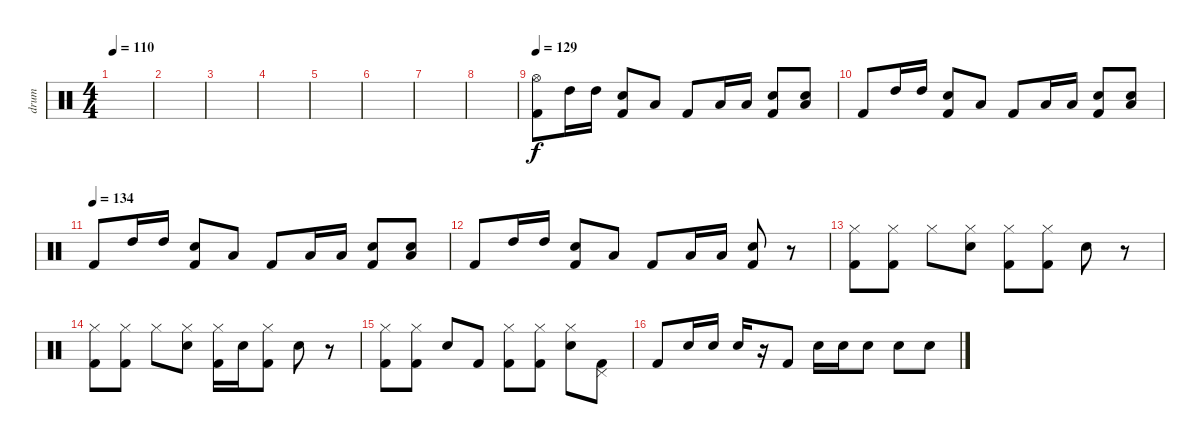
\track ("drum" "drum") {instrument percussion}
\staff {score}
\articulation defaults
\ts (4 4)
\tempo 110
\clef neutral
\ks c
|
|
|
|
|
|
|
|
\tempo 129
("Hi-Hat (open)" "Kick (hit) 2").8 "High Tom (hit)".16 "High Tom (hit)".16 ("Electric Snare (hit)" "Kick (hit) 2").8 "Low Tom (hit)".8 "Kick (hit) 2".8 "Low Tom (hit)".16 "Low Tom (hit)".16 ("Electric Snare (hit)" "Kick (hit) 2").8 ("Electric Snare (hit)" "Low Tom (hit)").8 |
"Kick (hit) 2".8 "High Tom (hit)".16 "High Tom (hit)".16 ("Electric Snare (hit)" "Kick (hit) 2").8 "Low Tom (hit)".8 "Kick (hit) 2".8 "Low Tom (hit)".16 "Low Tom (hit)".16 ("Electric Snare (hit)" "Kick (hit) 2").8 ("Electric Snare (hit)" "Low Tom (hit)").8 |
\tempo (134)
"Kick (hit) 2".8 "High Tom (hit)".16 "High Tom (hit)".16 ("Electric Snare (hit)" "Kick (hit) 2").8 "Low Tom (hit)".8 "Kick (hit) 2".8 "Low Tom (hit)".16 "Low Tom (hit)".16 ("Electric Snare (hit)" "Kick (hit) 2").8 ("Electric Snare (hit)" "Low Tom (hit)").8 |
"Kick (hit) 2".8 "High Tom (hit)".16 "High Tom (hit)".16 ("Electric Snare (hit)" "Kick (hit) 2").8 "Low Tom (hit)".8 "Kick (hit) 2".8 "Low Tom (hit)".16 "Low Tom (hit)".16 ("Electric Snare (hit)" "Kick (hit) 2").8 r.8 |
("Hi-Hat (closed)" "Kick (hit) 2").8 ("Hi-Hat (closed)" "Kick (hit) 2").8 "Hi-Hat (closed)".8 ("Hi-Hat (closed)" "Electric Snare (hit)").8 ("Hi-Hat (closed)" "Kick (hit) 2").8 ("Hi-Hat (closed)" "Kick (hit) 2").8 "Electric Snare (hit)".8 r.8 |
("Hi-Hat (closed)" "Kick (hit) 2").8 ("Hi-Hat (closed)" "Kick (hit) 2").8 "Hi-Hat (closed)".8 ("Hi-Hat (closed)" "Electric Snare (hit)").8 ("Hi-Hat (closed)" "Kick (hit) 2").16 "Electric Snare (hit)".16 ("Hi-Hat (closed)" "Kick (hit) 2").8 "Electric Snare (hit)".8 r.8 |
("Hi-Hat (closed)" "Kick (hit) 2").8 ("Hi-Hat (closed)" "Kick (hit) 2").8 "Electric Snare (hit)".8 "Kick (hit) 2".8 ("Hi-Hat (closed)" "Kick (hit) 2").8 ("Hi-Hat (closed)" "Kick (hit) 2").8 ("Hi-Hat (closed)" "Electric Snare (hit)").8 ("Pedal Hi-Hat (hit)" "Kick (hit) 2").8 |
"Kick (hit) 2".8 "Electric Snare (hit)".16 "Electric Snare (hit)".16 "Electric Snare (hit)".16 r.16 "Kick (hit) 2".8 "Electric Snare (hit)".16 "Electric Snare (hit)".16 "Electric Snare (hit)".8 "Electric Snare (hit)".8 "Electric Snare (hit)".8
